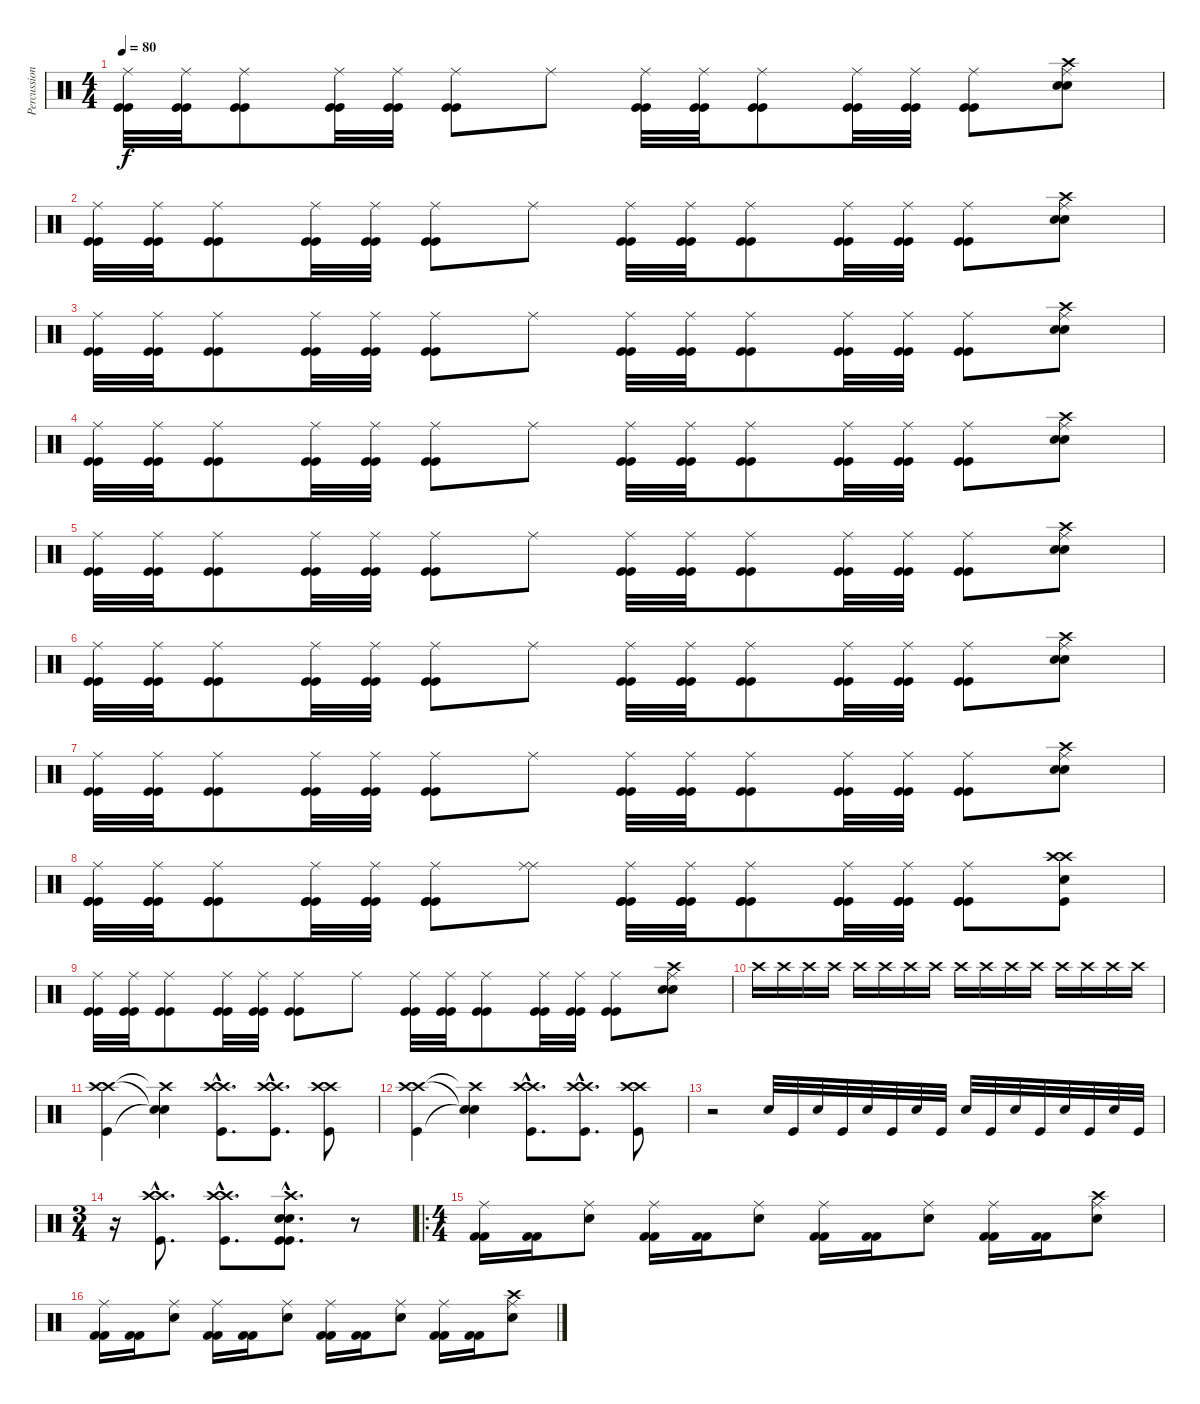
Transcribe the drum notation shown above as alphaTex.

\track ("Percussion" "Percussion") {instrument percussion}
\staff {score}
\articulation defaults
\ts (4 4)
\tempo 80
\clef neutral
\ks c
("Ride (middle)" "Kick (hit)" "Kick (hit)").32{dy f} ("Ride (middle)" "Kick (hit)" "Kick (hit)").32 ("Ride (middle)" "Kick (hit)" "Kick (hit)").8 ("Ride (middle)" "Kick (hit)" "Kick (hit)").32 ("Ride (middle)" "Kick (hit)" "Kick (hit)").32 ("Ride (middle)" "Kick (hit)" "Kick (hit)").8 "Ride (middle)".8 ("Ride (middle)" "Kick (hit)" "Kick (hit)").32 ("Ride (middle)" "Kick (hit)" "Kick (hit)").32 ("Ride (middle)" "Kick (hit)" "Kick (hit)").8 ("Ride (middle)" "Kick (hit)" "Kick (hit)").32 ("Ride (middle)" "Kick (hit)" "Kick (hit)").32 ("Ride (middle)" "Kick (hit)" "Kick (hit)").8 ("Ride (middle)" "Snare (hit) 2" "Crash high (hit)" "Snare (hit) 2").8 |
("Ride (middle)" "Kick (hit)" "Kick (hit)").32 ("Ride (middle)" "Kick (hit)" "Kick (hit)").32 ("Ride (middle)" "Kick (hit)" "Kick (hit)").8 ("Ride (middle)" "Kick (hit)" "Kick (hit)").32 ("Ride (middle)" "Kick (hit)" "Kick (hit)").32 ("Ride (middle)" "Kick (hit)" "Kick (hit)").8 "Ride (middle)".8 ("Ride (middle)" "Kick (hit)" "Kick (hit)").32 ("Ride (middle)" "Kick (hit)" "Kick (hit)").32 ("Ride (middle)" "Kick (hit)" "Kick (hit)").8 ("Ride (middle)" "Kick (hit)" "Kick (hit)").32 ("Ride (middle)" "Kick (hit)" "Kick (hit)").32 ("Ride (middle)" "Kick (hit)" "Kick (hit)").8 ("Ride (middle)" "Snare (hit) 2" "Crash high (hit)" "Snare (hit) 2").8 |
("Ride (middle)" "Kick (hit)" "Kick (hit)").32 ("Ride (middle)" "Kick (hit)" "Kick (hit)").32 ("Ride (middle)" "Kick (hit)" "Kick (hit)").8 ("Ride (middle)" "Kick (hit)" "Kick (hit)").32 ("Ride (middle)" "Kick (hit)" "Kick (hit)").32 ("Ride (middle)" "Kick (hit)" "Kick (hit)").8 "Ride (middle)".8 ("Ride (middle)" "Kick (hit)" "Kick (hit)").32 ("Ride (middle)" "Kick (hit)" "Kick (hit)").32 ("Ride (middle)" "Kick (hit)" "Kick (hit)").8 ("Ride (middle)" "Kick (hit)" "Kick (hit)").32 ("Ride (middle)" "Kick (hit)" "Kick (hit)").32 ("Ride (middle)" "Kick (hit)" "Kick (hit)").8 ("Ride (middle)" "Snare (hit) 2" "Crash high (hit)" "Snare (hit) 2").8 |
("Ride (middle)" "Kick (hit)" "Kick (hit)").32 ("Ride (middle)" "Kick (hit)" "Kick (hit)").32 ("Ride (middle)" "Kick (hit)" "Kick (hit)").8 ("Ride (middle)" "Kick (hit)" "Kick (hit)").32 ("Ride (middle)" "Kick (hit)" "Kick (hit)").32 ("Ride (middle)" "Kick (hit)" "Kick (hit)").8 "Ride (middle)".8 ("Ride (middle)" "Kick (hit)" "Kick (hit)").32 ("Ride (middle)" "Kick (hit)" "Kick (hit)").32 ("Ride (middle)" "Kick (hit)" "Kick (hit)").8 ("Ride (middle)" "Kick (hit)" "Kick (hit)").32 ("Ride (middle)" "Kick (hit)" "Kick (hit)").32 ("Ride (middle)" "Kick (hit)" "Kick (hit)").8 ("Ride (middle)" "Snare (hit) 2" "Crash high (hit)" "Snare (hit) 2").8 |
("Ride (middle)" "Kick (hit)" "Kick (hit)").32 ("Ride (middle)" "Kick (hit)" "Kick (hit)").32 ("Ride (middle)" "Kick (hit)" "Kick (hit)").8 ("Ride (middle)" "Kick (hit)" "Kick (hit)").32 ("Ride (middle)" "Kick (hit)" "Kick (hit)").32 ("Ride (middle)" "Kick (hit)" "Kick (hit)").8 "Ride (middle)".8 ("Ride (middle)" "Kick (hit)" "Kick (hit)").32 ("Ride (middle)" "Kick (hit)" "Kick (hit)").32 ("Ride (middle)" "Kick (hit)" "Kick (hit)").8 ("Ride (middle)" "Kick (hit)" "Kick (hit)").32 ("Ride (middle)" "Kick (hit)" "Kick (hit)").32 ("Ride (middle)" "Kick (hit)" "Kick (hit)").8 ("Ride (middle)" "Snare (hit) 2" "Crash high (hit)" "Snare (hit) 2").8 |
("Ride (middle)" "Kick (hit)" "Kick (hit)").32 ("Ride (middle)" "Kick (hit)" "Kick (hit)").32 ("Ride (middle)" "Kick (hit)" "Kick (hit)").8 ("Ride (middle)" "Kick (hit)" "Kick (hit)").32 ("Ride (middle)" "Kick (hit)" "Kick (hit)").32 ("Ride (middle)" "Kick (hit)" "Kick (hit)").8 "Ride (middle)".8 ("Ride (middle)" "Kick (hit)" "Kick (hit)").32 ("Ride (middle)" "Kick (hit)" "Kick (hit)").32 ("Ride (middle)" "Kick (hit)" "Kick (hit)").8 ("Ride (middle)" "Kick (hit)" "Kick (hit)").32 ("Ride (middle)" "Kick (hit)" "Kick (hit)").32 ("Ride (middle)" "Kick (hit)" "Kick (hit)").8 ("Ride (middle)" "Snare (hit) 2" "Crash high (hit)" "Snare (hit) 2").8 |
("Ride (middle)" "Kick (hit)" "Kick (hit)").32 ("Ride (middle)" "Kick (hit)" "Kick (hit)").32 ("Ride (middle)" "Kick (hit)" "Kick (hit)").8 ("Ride (middle)" "Kick (hit)" "Kick (hit)").32 ("Ride (middle)" "Kick (hit)" "Kick (hit)").32 ("Ride (middle)" "Kick (hit)" "Kick (hit)").8 "Ride (middle)".8 ("Ride (middle)" "Kick (hit)" "Kick (hit)").32 ("Ride (middle)" "Kick (hit)" "Kick (hit)").32 ("Ride (middle)" "Kick (hit)" "Kick (hit)").8 ("Ride (middle)" "Kick (hit)" "Kick (hit)").32 ("Ride (middle)" "Kick (hit)" "Kick (hit)").32 ("Ride (middle)" "Kick (hit)" "Kick (hit)").8 ("Ride (middle)" "Snare (hit) 2" "Crash high (hit)" "Snare (hit) 2").8 |
("Kick (hit)" "Kick (hit)" "Kick (hit)" "Ride (middle)").32 ("Kick (hit)" "Kick (hit)" "Kick (hit)" "Ride (middle)").32 ("Kick (hit)" "Kick (hit)" "Kick (hit)" "Ride (middle)").8 ("Kick (hit)" "Kick (hit)" "Kick (hit)" "Ride (middle)").32 ("Kick (hit)" "Kick (hit)" "Kick (hit)" "Ride (middle)").32 ("Kick (hit)" "Kick (hit)" "Kick (hit)" "Ride (middle)").8 ("Ride (middle)" "Ride (middle)").8 ("Kick (hit)" "Kick (hit)" "Kick (hit)" "Ride (middle)").32 ("Kick (hit)" "Kick (hit)" "Kick (hit)" "Ride (middle)").32 ("Kick (hit)" "Kick (hit)" "Kick (hit)" "Ride (middle)").8 ("Kick (hit)" "Kick (hit)" "Kick (hit)" "Ride (middle)").32 ("Kick (hit)" "Kick (hit)" "Kick (hit)" "Ride (middle)").32 ("Kick (hit)" "Kick (hit)" "Kick (hit)" "Ride (middle)").8 ("Kick (hit)" "Crash high (hit)" "Crash high (hit)" "Snare (hit) 2").8 |
("Ride (middle)" "Kick (hit)" "Kick (hit)").32 ("Ride (middle)" "Kick (hit)" "Kick (hit)").32 ("Ride (middle)" "Kick (hit)" "Kick (hit)").8 ("Ride (middle)" "Kick (hit)" "Kick (hit)").32 ("Ride (middle)" "Kick (hit)" "Kick (hit)").32 ("Ride (middle)" "Kick (hit)" "Kick (hit)").8 "Ride (middle)".8 ("Ride (middle)" "Kick (hit)" "Kick (hit)").32 ("Ride (middle)" "Kick (hit)" "Kick (hit)").32 ("Ride (middle)" "Kick (hit)" "Kick (hit)").8 ("Ride (middle)" "Kick (hit)" "Kick (hit)").32 ("Ride (middle)" "Kick (hit)" "Kick (hit)").32 ("Ride (middle)" "Kick (hit)" "Kick (hit)").8 ("Ride (middle)" "Snare (hit) 2" "Crash high (hit)" "Snare (hit) 2").8 |
"Crash high (hit)".16 "Crash high (hit)".16 "Crash high (hit)".16 "Crash high (hit)".16 "Crash high (hit)".16 "Crash high (hit)".16 "Crash high (hit)".16 "Crash high (hit)".16 "Crash high (hit)".16 "Crash high (hit)".16 "Crash high (hit)".16 "Crash high (hit)".16 "Crash high (hit)".16 "Crash high (hit)".16 "Crash high (hit)".16 "Crash high (hit)".16 |
("Crash high (hit)" "Kick (hit)" "Crash high (hit)").4 ("Snare (hit)"{t} "Snare (hit)"{t} "Crash high (hit)"{t}).4 ("Crash high (hit)"{hac} "Kick (hit)"{hac} "Crash high (hit)"{hac}).8{d} ("Crash high (hit)"{hac} "Kick (hit)"{hac} "Crash high (hit)"{hac}).8{d} ("Crash high (hit)" "Kick (hit)" "Crash high (hit)").8 |
("Crash high (hit)" "Kick (hit)" "Crash high (hit)").4 ("Snare (hit)"{t} "Snare (hit)"{t} "Crash high (hit)"{t}).4 ("Crash high (hit)"{hac} "Kick (hit)"{hac} "Crash high (hit)"{hac}).8{d} ("Crash high (hit)"{hac} "Kick (hit)"{hac} "Crash high (hit)"{hac}).8{d} ("Crash high (hit)" "Kick (hit)" "Crash high (hit)").8 |
r.2 "Snare (hit) 2".32 "Kick (hit)".32 "Snare (hit) 2".32 "Kick (hit)".32 "Snare (hit) 2".32 "Kick (hit)".32 "Snare (hit) 2".32 "Kick (hit)".32 "Snare (hit) 2".32 "Kick (hit)".32 "Snare (hit) 2".32 "Kick (hit)".32 "Snare (hit) 2".32 "Kick (hit)".32 "Snare (hit) 2".32 "Kick (hit)".32 |
\ts (3 4)
r.16 ("Crash high (hit)"{hac} "Kick (hit)"{hac} "Crash high (hit)"{hac}).8{d} ("Crash high (hit)"{hac} "Kick (hit)"{hac} "Crash high (hit)"{hac}).8{d} ("Crash high (hit)"{hac} "Kick (hit)"{hac} "Kick (hit)"{hac} "Snare (hit) 2"{hac} "Snare (hit) 2"{hac}).8{d} r.8 |
\ro
\ts (4 4)
("Kick (hit) 2" "Kick (hit) 2" "Ride (middle)").16 ("Kick (hit) 2" "Kick (hit) 2").16 ("Snare (hit) 2" "Ride (middle)").8 ("Kick (hit) 2" "Kick (hit) 2" "Ride (middle)").16 ("Kick (hit) 2" "Kick (hit) 2").16 ("Snare (hit) 2" "Ride (middle)").8 ("Kick (hit) 2" "Kick (hit) 2" "Ride (middle)").16 ("Kick (hit) 2" "Kick (hit) 2").16 ("Snare (hit) 2" "Ride (middle)").8 ("Kick (hit) 2" "Kick (hit) 2" "Ride (middle)").16 ("Kick (hit) 2" "Kick (hit) 2").16 ("Snare (hit) 2" "Crash high (hit)" "Ride (middle)").8 |
("Kick (hit) 2" "Kick (hit) 2" "Ride (middle)").16 ("Kick (hit) 2" "Kick (hit) 2").16 ("Snare (hit) 2" "Ride (middle)").8 ("Kick (hit) 2" "Kick (hit) 2" "Ride (middle)").16 ("Kick (hit) 2" "Kick (hit) 2").16 ("Snare (hit) 2" "Ride (middle)").8 ("Kick (hit) 2" "Kick (hit) 2" "Ride (middle)").16 ("Kick (hit) 2" "Kick (hit) 2").16 ("Snare (hit) 2" "Ride (middle)").8 ("Kick (hit) 2" "Kick (hit) 2" "Ride (middle)").16 ("Kick (hit) 2" "Kick (hit) 2").16 ("Snare (hit) 2" "Crash high (hit)" "Ride (middle)").8
